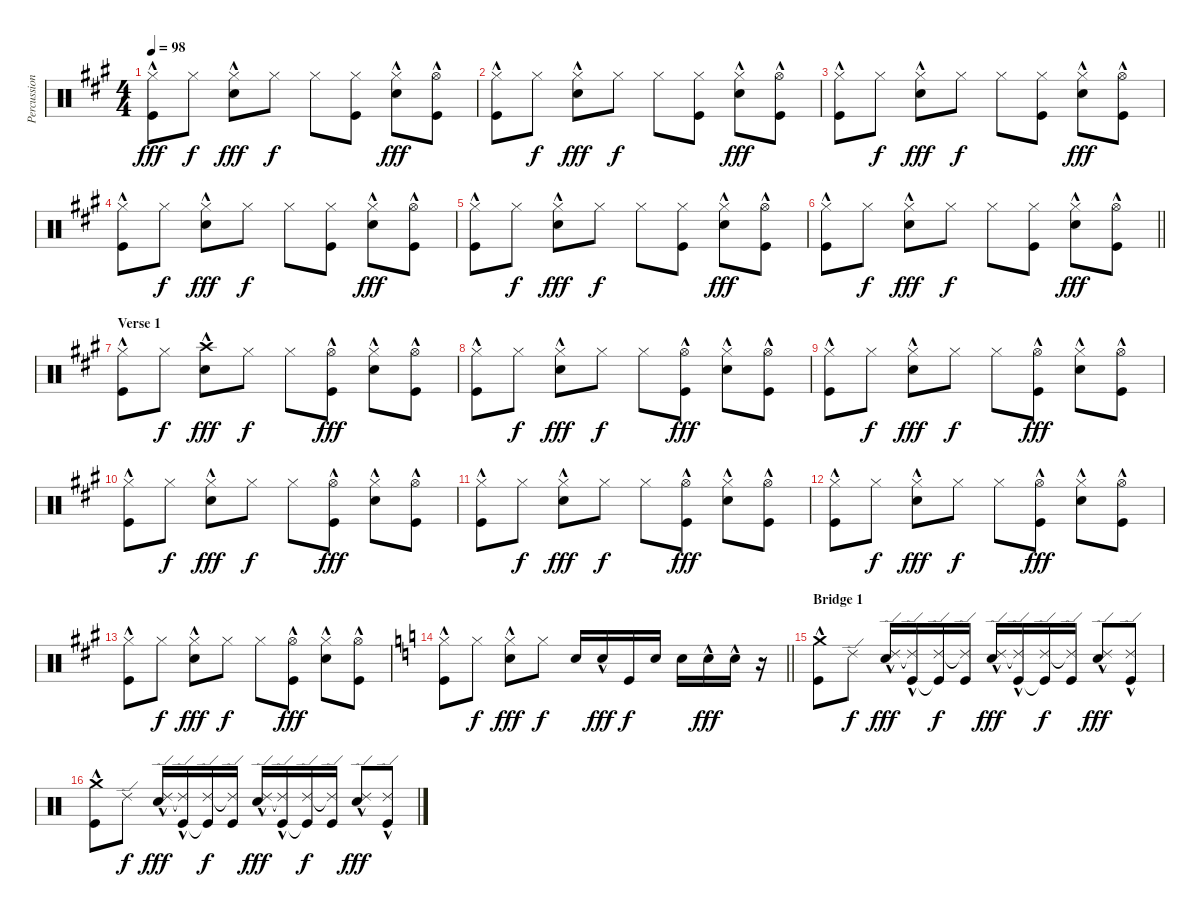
\track ("Percussion -- Joey Kramer" "Percussion") {instrument percussion}
\staff {score}
\articulation defaults
\ts (4 4)
\tempo 98
\clef neutral
\ks a
("Hi-Hat (closed)" "Kick (hit)"{hac}).8{dy fff} "Hi-Hat (closed)".8{dy f} ("Hi-Hat (closed)" "Snare (hit) 2"{hac}).8{dy fff} "Hi-Hat (closed)".8{dy f} "Hi-Hat (closed)".8 ("Hi-Hat (closed)" "Kick (hit)").8 ("Hi-Hat (closed)" "Snare (hit) 2"{hac}).8{dy fff} ("Hi-Hat (open)"{hac} "Kick (hit)"{hac}).8 |
("Hi-Hat (closed)" "Kick (hit)"{hac}).8 "Hi-Hat (closed)".8{dy f} ("Hi-Hat (closed)" "Snare (hit) 2"{hac}).8{dy fff} "Hi-Hat (closed)".8{dy f} "Hi-Hat (closed)".8 ("Hi-Hat (closed)" "Kick (hit)").8 ("Hi-Hat (closed)" "Snare (hit) 2"{hac}).8{dy fff} ("Hi-Hat (open)"{hac} "Kick (hit)"{hac}).8 |
("Hi-Hat (closed)" "Kick (hit)"{hac}).8 "Hi-Hat (closed)".8{dy f} ("Hi-Hat (closed)" "Snare (hit) 2"{hac}).8{dy fff} "Hi-Hat (closed)".8{dy f} "Hi-Hat (closed)".8 ("Hi-Hat (closed)" "Kick (hit)").8 ("Hi-Hat (closed)" "Snare (hit) 2"{hac}).8{dy fff} ("Hi-Hat (open)"{hac} "Kick (hit)"{hac}).8 |
("Hi-Hat (closed)" "Kick (hit)"{hac}).8 "Hi-Hat (closed)".8{dy f} ("Hi-Hat (closed)" "Snare (hit) 2"{hac}).8{dy fff} "Hi-Hat (closed)".8{dy f} "Hi-Hat (closed)".8 ("Hi-Hat (closed)" "Kick (hit)").8 ("Hi-Hat (closed)" "Snare (hit) 2"{hac}).8{dy fff} ("Hi-Hat (open)"{hac} "Kick (hit)"{hac}).8 |
("Hi-Hat (closed)" "Kick (hit)"{hac}).8 "Hi-Hat (closed)".8{dy f} ("Hi-Hat (closed)" "Snare (hit) 2"{hac}).8{dy fff} "Hi-Hat (closed)".8{dy f} "Hi-Hat (closed)".8 ("Hi-Hat (closed)" "Kick (hit)").8 ("Hi-Hat (closed)" "Snare (hit) 2"{hac}).8{dy fff} ("Hi-Hat (open)"{hac} "Kick (hit)"{hac}).8 |
\barLineRight lightlight
("Hi-Hat (closed)" "Kick (hit)"{hac}).8 "Hi-Hat (closed)".8{dy f} ("Hi-Hat (closed)" "Snare (hit) 2"{hac}).8{dy fff} "Hi-Hat (closed)".8{dy f} "Hi-Hat (closed)".8 ("Hi-Hat (closed)" "Kick (hit)").8 ("Hi-Hat (closed)" "Snare (hit) 2"{hac}).8{dy fff} ("Hi-Hat (open)"{hac} "Kick (hit)"{hac}).8 |
\section ("" "Verse 1")
("Hi-Hat (closed)" "Kick (hit)"{hac}).8 "Hi-Hat (closed)".8{dy f} ("Crash high (hit)"{hac} "Snare (hit) 2"{hac}).8{dy fff} "Hi-Hat (closed)".8{dy f} "Hi-Hat (closed)".8 ("Hi-Hat (open)"{hac} "Kick (hit)").8{dy fff} ("Hi-Hat (closed)" "Snare (hit) 2"{hac}).8 ("Hi-Hat (open)"{hac} "Kick (hit)"{hac}).8 |
("Hi-Hat (closed)" "Kick (hit)"{hac}).8 "Hi-Hat (closed)".8{dy f} ("Hi-Hat (closed)" "Snare (hit) 2"{hac}).8{dy fff} "Hi-Hat (closed)".8{dy f} "Hi-Hat (closed)".8 ("Hi-Hat (open)"{hac} "Kick (hit)").8{dy fff} ("Hi-Hat (closed)" "Snare (hit) 2"{hac}).8 ("Hi-Hat (open)"{hac} "Kick (hit)"{hac}).8 |
("Hi-Hat (closed)" "Kick (hit)"{hac}).8 "Hi-Hat (closed)".8{dy f} ("Hi-Hat (closed)" "Snare (hit) 2"{hac}).8{dy fff} "Hi-Hat (closed)".8{dy f} "Hi-Hat (closed)".8 ("Hi-Hat (open)"{hac} "Kick (hit)").8{dy fff} ("Hi-Hat (closed)" "Snare (hit) 2"{hac}).8 ("Hi-Hat (open)"{hac} "Kick (hit)"{hac}).8 |
("Hi-Hat (closed)" "Kick (hit)"{hac}).8 "Hi-Hat (closed)".8{dy f} ("Hi-Hat (closed)" "Snare (hit) 2"{hac}).8{dy fff} "Hi-Hat (closed)".8{dy f} "Hi-Hat (closed)".8 ("Hi-Hat (open)"{hac} "Kick (hit)").8{dy fff} ("Hi-Hat (closed)" "Snare (hit) 2"{hac}).8 ("Hi-Hat (open)"{hac} "Kick (hit)"{hac}).8 |
("Hi-Hat (closed)" "Kick (hit)"{hac}).8 "Hi-Hat (closed)".8{dy f} ("Hi-Hat (closed)" "Snare (hit) 2"{hac}).8{dy fff} "Hi-Hat (closed)".8{dy f} "Hi-Hat (closed)".8 ("Hi-Hat (open)"{hac} "Kick (hit)").8{dy fff} ("Hi-Hat (closed)" "Snare (hit) 2"{hac}).8 ("Hi-Hat (open)"{hac} "Kick (hit)"{hac}).8 |
("Hi-Hat (closed)" "Kick (hit)"{hac}).8 "Hi-Hat (closed)".8{dy f} ("Hi-Hat (closed)" "Snare (hit) 2"{hac}).8{dy fff} "Hi-Hat (closed)".8{dy f} "Hi-Hat (closed)".8 ("Hi-Hat (open)"{hac} "Kick (hit)").8{dy fff} ("Hi-Hat (closed)" "Snare (hit) 2"{hac}).8 ("Hi-Hat (open)"{hac} "Kick (hit)"{hac}).8 |
("Hi-Hat (closed)" "Kick (hit)"{hac}).8 "Hi-Hat (closed)".8{dy f} ("Hi-Hat (closed)" "Snare (hit) 2"{hac}).8{dy fff} "Hi-Hat (closed)".8{dy f} "Hi-Hat (closed)".8 ("Hi-Hat (open)"{hac} "Kick (hit)").8{dy fff} ("Hi-Hat (closed)" "Snare (hit) 2"{hac}).8 ("Hi-Hat (open)"{hac} "Kick (hit)"{hac}).8 |
\barLineRight lightlight
\ks c
("Hi-Hat (closed)" "Kick (hit)"{hac}).8 "Hi-Hat (closed)".8{dy f} ("Hi-Hat (closed)" "Snare (hit) 2"{hac}).8{dy fff} "Hi-Hat (closed)".8{dy f} "Snare (hit) 2".16 "Snare (hit) 2"{hac}.16{dy fff} "Kick (hit)".16{dy f} "Snare (hit) 2".16 "Snare (hit) 2".16 "Snare (hit) 2"{hac}.16{dy fff} "Snare (hit) 2"{hac}.16 r.16 |
\section ("" "Bridge 1")
("Crash medium (hit)"{hac} "Kick (hit)"{hac}).8 "Ride (edge) 2".8{dy f} ("Ride (edge) 2" "Snare (hit) 2"{hac}).16{dy fff} ("Ride (edge) 2"{t} "Kick (hit)"{hac}).16 ("Ride (edge) 2" "Kick (hit)"{t}).16{dy f} ("Ride (edge) 2"{t} "Kick (hit)").16 ("Ride (edge) 2" "Snare (hit) 2"{hac}).16{dy fff} ("Ride (edge) 2"{t} "Kick (hit)"{hac}).16 ("Ride (edge) 2" "Kick (hit)"{t}).16{dy f} ("Ride (edge) 2"{t} "Kick (hit)").16 ("Ride (edge) 2" "Snare (hit) 2"{hac}).8{dy fff} ("Ride (edge) 2" "Kick (hit)"{hac}).8 |
("Crash medium (hit)"{hac} "Kick (hit)"{hac}).8 "Ride (edge) 2".8{dy f} ("Ride (edge) 2" "Snare (hit) 2"{hac}).16{dy fff} ("Ride (edge) 2"{t} "Kick (hit)"{hac}).16 ("Ride (edge) 2" "Kick (hit)"{t}).16{dy f} ("Ride (edge) 2"{t} "Kick (hit)").16 ("Ride (edge) 2" "Snare (hit) 2"{hac}).16{dy fff} ("Ride (edge) 2"{t} "Kick (hit)"{hac}).16 ("Ride (edge) 2" "Kick (hit)"{t}).16{dy f} ("Ride (edge) 2"{t} "Kick (hit)").16 ("Ride (edge) 2" "Snare (hit) 2"{hac}).8{dy fff} ("Ride (edge) 2" "Kick (hit)"{hac}).8
